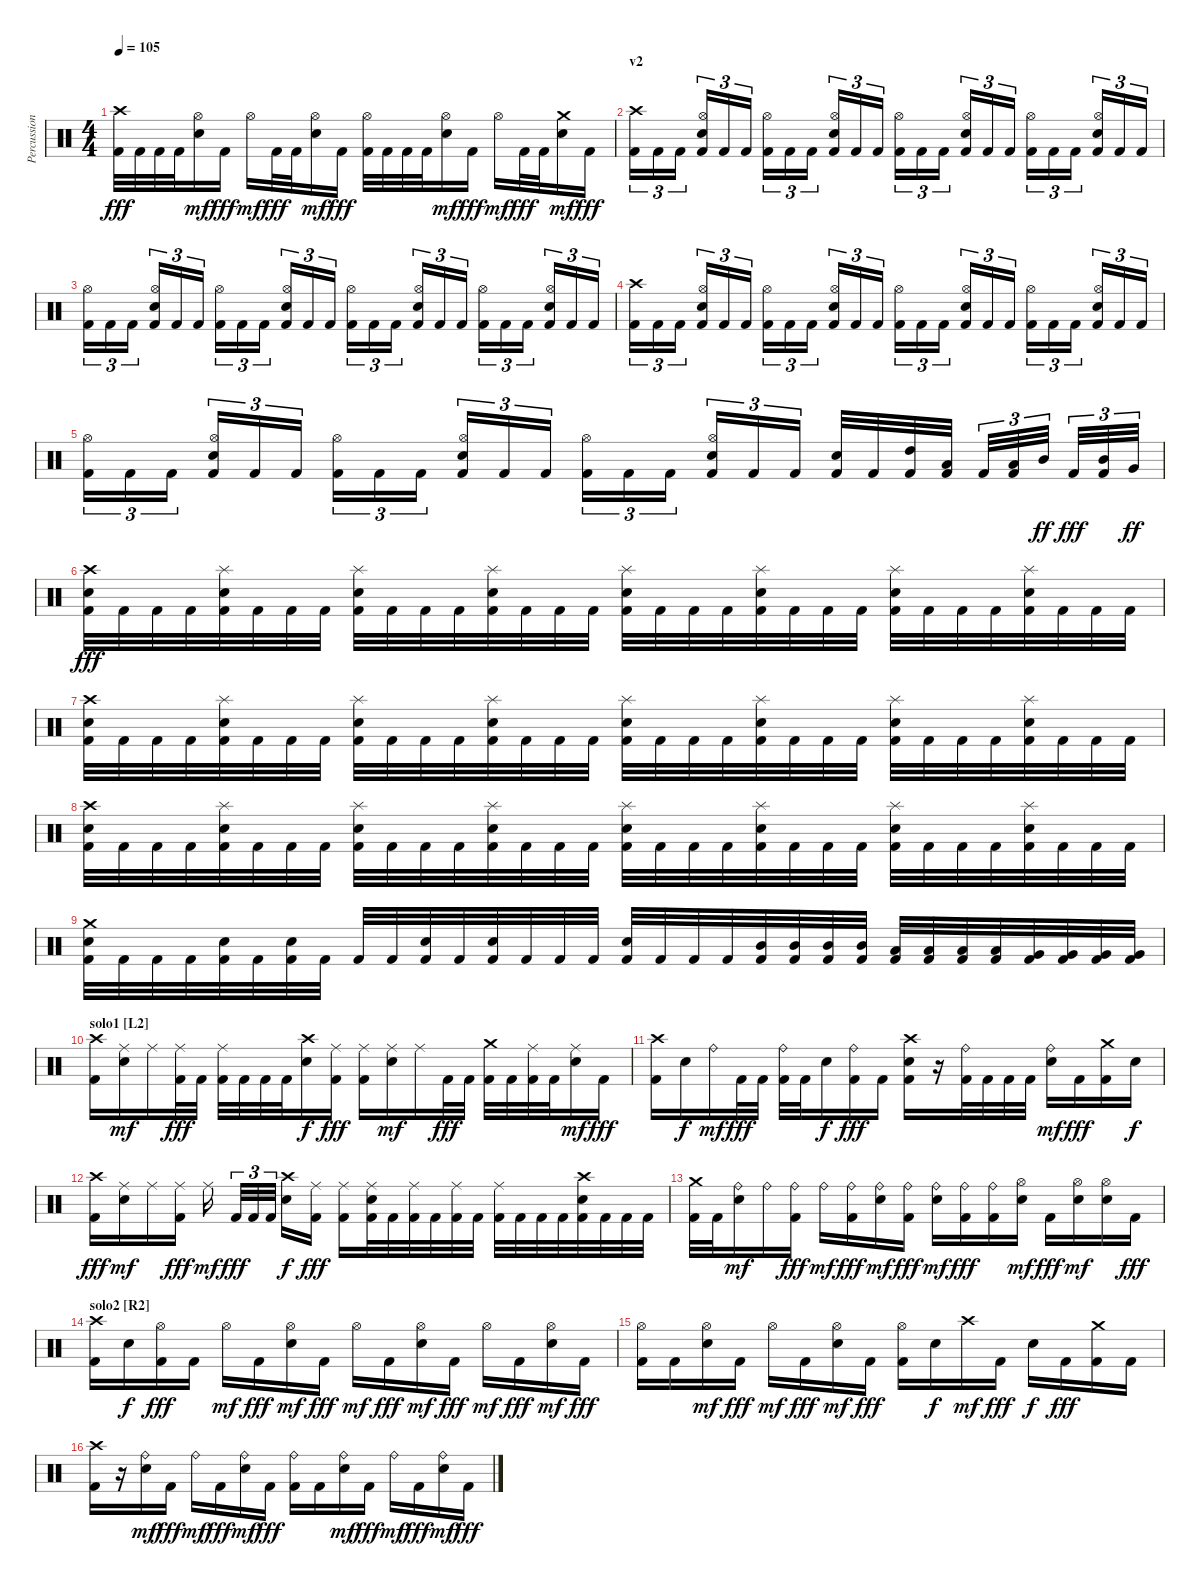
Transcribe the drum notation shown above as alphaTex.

\track ("Percussion" "Percussion") {instrument percussion}
\staff {score}
\articulation defaults
\ts (4 4)
\tempo 105
\clef neutral
\ks c
("Crash high (hit)" "Kick (hit) 2").32{dy fff} "Kick (hit) 2".32 "Kick (hit) 2".32 "Kick (hit) 2".32 ("Hi-Hat (open)" "Snare (hit) 2").16{dy mf} "Kick (hit) 2".16{dy fff} "Hi-Hat (open)".16{dy mf} "Kick (hit) 2".32{dy fff} "Kick (hit) 2".32 ("Hi-Hat (open)" "Snare (hit) 2").16{dy mf} "Kick (hit) 2".16{dy fff} ("Hi-Hat (open)" "Kick (hit) 2").32 "Kick (hit) 2".32 "Kick (hit) 2".32 "Kick (hit) 2".32 ("Hi-Hat (open)" "Snare (hit) 2").16{dy mf} "Kick (hit) 2".16{dy fff} "Hi-Hat (open)".16{dy mf} "Kick (hit) 2".32{dy fff} "Kick (hit) 2".32 ("Crash medium (hit)" "Snare (hit) 2").16{dy mf} "Kick (hit) 2".16{dy fff} |
\section ("" "v2")
("Crash high (hit)" "Kick (hit) 2").16{tu (3 2)} "Kick (hit) 2".16{tu (3 2)} "Kick (hit) 2".16{tu (3 2)} ("Hi-Hat (open)" "Snare (hit) 2" "Kick (hit) 2").16{tu (3 2)} "Kick (hit) 2".16{tu (3 2)} "Kick (hit) 2".16{tu (3 2)} ("Hi-Hat (open)" "Kick (hit) 2").16{tu (3 2)} "Kick (hit) 2".16{tu (3 2)} "Kick (hit) 2".16{tu (3 2)} ("Hi-Hat (open)" "Snare (hit) 2" "Kick (hit) 2").16{tu (3 2)} "Kick (hit) 2".16{tu (3 2)} "Kick (hit) 2".16{tu (3 2)} ("Hi-Hat (open)" "Kick (hit) 2").16{tu (3 2)} "Kick (hit) 2".16{tu (3 2)} "Kick (hit) 2".16{tu (3 2)} ("Hi-Hat (open)" "Snare (hit) 2" "Kick (hit) 2").16{tu (3 2)} "Kick (hit) 2".16{tu (3 2)} "Kick (hit) 2".16{tu (3 2)} ("Hi-Hat (open)" "Kick (hit) 2").16{tu (3 2)} "Kick (hit) 2".16{tu (3 2)} "Kick (hit) 2".16{tu (3 2)} ("Hi-Hat (open)" "Snare (hit) 2" "Kick (hit) 2").16{tu (3 2)} "Kick (hit) 2".16{tu (3 2)} "Kick (hit) 2".16{tu (3 2)} |
("Hi-Hat (open)" "Kick (hit) 2").16{tu (3 2)} "Kick (hit) 2".16{tu (3 2)} "Kick (hit) 2".16{tu (3 2)} ("Hi-Hat (open)" "Snare (hit) 2" "Kick (hit) 2").16{tu (3 2)} "Kick (hit) 2".16{tu (3 2)} "Kick (hit) 2".16{tu (3 2)} ("Hi-Hat (open)" "Kick (hit) 2").16{tu (3 2)} "Kick (hit) 2".16{tu (3 2)} "Kick (hit) 2".16{tu (3 2)} ("Hi-Hat (open)" "Snare (hit) 2" "Kick (hit) 2").16{tu (3 2)} "Kick (hit) 2".16{tu (3 2)} "Kick (hit) 2".16{tu (3 2)} ("Hi-Hat (open)" "Kick (hit) 2").16{tu (3 2)} "Kick (hit) 2".16{tu (3 2)} "Kick (hit) 2".16{tu (3 2)} ("Hi-Hat (open)" "Snare (hit) 2" "Kick (hit) 2").16{tu (3 2)} "Kick (hit) 2".16{tu (3 2)} "Kick (hit) 2".16{tu (3 2)} ("Hi-Hat (open)" "Kick (hit) 2").16{tu (3 2)} "Kick (hit) 2".16{tu (3 2)} "Kick (hit) 2".16{tu (3 2)} ("Hi-Hat (open)" "Snare (hit) 2" "Kick (hit) 2").16{tu (3 2)} "Kick (hit) 2".16{tu (3 2)} "Kick (hit) 2".16{tu (3 2)} |
("Crash high (hit)" "Kick (hit) 2").16{tu (3 2)} "Kick (hit) 2".16{tu (3 2)} "Kick (hit) 2".16{tu (3 2)} ("Hi-Hat (open)" "Snare (hit) 2" "Kick (hit) 2").16{tu (3 2)} "Kick (hit) 2".16{tu (3 2)} "Kick (hit) 2".16{tu (3 2)} ("Hi-Hat (open)" "Kick (hit) 2").16{tu (3 2)} "Kick (hit) 2".16{tu (3 2)} "Kick (hit) 2".16{tu (3 2)} ("Hi-Hat (open)" "Snare (hit) 2" "Kick (hit) 2").16{tu (3 2)} "Kick (hit) 2".16{tu (3 2)} "Kick (hit) 2".16{tu (3 2)} ("Hi-Hat (open)" "Kick (hit) 2").16{tu (3 2)} "Kick (hit) 2".16{tu (3 2)} "Kick (hit) 2".16{tu (3 2)} ("Hi-Hat (open)" "Snare (hit) 2" "Kick (hit) 2").16{tu (3 2)} "Kick (hit) 2".16{tu (3 2)} "Kick (hit) 2".16{tu (3 2)} ("Hi-Hat (open)" "Kick (hit) 2").16{tu (3 2)} "Kick (hit) 2".16{tu (3 2)} "Kick (hit) 2".16{tu (3 2)} ("Hi-Hat (open)" "Snare (hit) 2" "Kick (hit) 2").16{tu (3 2)} "Kick (hit) 2".16{tu (3 2)} "Kick (hit) 2".16{tu (3 2)} |
("Hi-Hat (open)" "Kick (hit) 2").16{tu (3 2)} "Kick (hit) 2".16{tu (3 2)} "Kick (hit) 2".16{tu (3 2)} ("Hi-Hat (open)" "Snare (hit) 2" "Kick (hit) 2").16{tu (3 2)} "Kick (hit) 2".16{tu (3 2)} "Kick (hit) 2".16{tu (3 2)} ("Hi-Hat (open)" "Kick (hit) 2").16{tu (3 2)} "Kick (hit) 2".16{tu (3 2)} "Kick (hit) 2".16{tu (3 2)} ("Hi-Hat (open)" "Snare (hit) 2" "Kick (hit) 2").16{tu (3 2)} "Kick (hit) 2".16{tu (3 2)} "Kick (hit) 2".16{tu (3 2)} ("Hi-Hat (open)" "Kick (hit) 2").16{tu (3 2)} "Kick (hit) 2".16{tu (3 2)} "Kick (hit) 2".16{tu (3 2)} ("Hi-Hat (open)" "Snare (hit) 2" "Kick (hit) 2").16{tu (3 2)} "Kick (hit) 2".16{tu (3 2)} "Kick (hit) 2".16{tu (3 2)} ("Snare (hit) 2" "Kick (hit) 2").32 "Kick (hit) 2".32 ("High Tom (hit)" "Kick (hit) 2").32 ("Low Tom (hit)" "Kick (hit) 2").32 "Kick (hit) 2".32{tu (3 2)} ("Low Tom (hit)" "Kick (hit) 2").32{tu (3 2)} "Mid Tom (hit)".32{tu (3 2) dy ff} "Kick (hit) 2".32{tu (3 2) dy fff} ("Mid Tom (hit)" "Kick (hit) 2").32{tu (3 2)} "Very Low Tom (hit)".32{tu (3 2) dy ff} |
("Crash high (hit)" "Snare (hit) 2" "Kick (hit) 2").32{dy fff} "Kick (hit) 2".32 "Kick (hit) 2".32 "Kick (hit) 2".32 ("Splash (hit)" "Snare (hit) 2" "Kick (hit) 2").32 "Kick (hit) 2".32 "Kick (hit) 2".32 "Kick (hit) 2".32 ("Splash (hit)" "Snare (hit) 2" "Kick (hit) 2").32 "Kick (hit) 2".32 "Kick (hit) 2".32 "Kick (hit) 2".32 ("Splash (hit)" "Snare (hit) 2" "Kick (hit) 2").32 "Kick (hit) 2".32 "Kick (hit) 2".32 "Kick (hit) 2".32 ("Splash (hit)" "Snare (hit) 2" "Kick (hit) 2").32 "Kick (hit) 2".32 "Kick (hit) 2".32 "Kick (hit) 2".32 ("Splash (hit)" "Snare (hit) 2" "Kick (hit) 2").32 "Kick (hit) 2".32 "Kick (hit) 2".32 "Kick (hit) 2".32 ("Splash (hit)" "Snare (hit) 2" "Kick (hit) 2").32 "Kick (hit) 2".32 "Kick (hit) 2".32 "Kick (hit) 2".32 ("Splash (hit)" "Snare (hit) 2" "Kick (hit) 2").32 "Kick (hit) 2".32 "Kick (hit) 2".32 "Kick (hit) 2".32 |
("Crash high (hit)" "Snare (hit) 2" "Kick (hit) 2").32 "Kick (hit) 2".32 "Kick (hit) 2".32 "Kick (hit) 2".32 ("Splash (hit)" "Snare (hit) 2" "Kick (hit) 2").32 "Kick (hit) 2".32 "Kick (hit) 2".32 "Kick (hit) 2".32 ("Splash (hit)" "Snare (hit) 2" "Kick (hit) 2").32 "Kick (hit) 2".32 "Kick (hit) 2".32 "Kick (hit) 2".32 ("Splash (hit)" "Snare (hit) 2" "Kick (hit) 2").32 "Kick (hit) 2".32 "Kick (hit) 2".32 "Kick (hit) 2".32 ("Splash (hit)" "Snare (hit) 2" "Kick (hit) 2").32 "Kick (hit) 2".32 "Kick (hit) 2".32 "Kick (hit) 2".32 ("Splash (hit)" "Snare (hit) 2" "Kick (hit) 2").32 "Kick (hit) 2".32 "Kick (hit) 2".32 "Kick (hit) 2".32 ("Splash (hit)" "Snare (hit) 2" "Kick (hit) 2").32 "Kick (hit) 2".32 "Kick (hit) 2".32 "Kick (hit) 2".32 ("Splash (hit)" "Snare (hit) 2" "Kick (hit) 2").32 "Kick (hit) 2".32 "Kick (hit) 2".32 "Kick (hit) 2".32 |
("Crash high (hit)" "Snare (hit) 2" "Kick (hit) 2").32 "Kick (hit) 2".32 "Kick (hit) 2".32 "Kick (hit) 2".32 ("Splash (hit)" "Snare (hit) 2" "Kick (hit) 2").32 "Kick (hit) 2".32 "Kick (hit) 2".32 "Kick (hit) 2".32 ("Splash (hit)" "Snare (hit) 2" "Kick (hit) 2").32 "Kick (hit) 2".32 "Kick (hit) 2".32 "Kick (hit) 2".32 ("Splash (hit)" "Snare (hit) 2" "Kick (hit) 2").32 "Kick (hit) 2".32 "Kick (hit) 2".32 "Kick (hit) 2".32 ("Splash (hit)" "Snare (hit) 2" "Kick (hit) 2").32 "Kick (hit) 2".32 "Kick (hit) 2".32 "Kick (hit) 2".32 ("Splash (hit)" "Snare (hit) 2" "Kick (hit) 2").32 "Kick (hit) 2".32 "Kick (hit) 2".32 "Kick (hit) 2".32 ("Splash (hit)" "Snare (hit) 2" "Kick (hit) 2").32 "Kick (hit) 2".32 "Kick (hit) 2".32 "Kick (hit) 2".32 ("Splash (hit)" "Snare (hit) 2" "Kick (hit) 2").32 "Kick (hit) 2".32 "Kick (hit) 2".32 "Kick (hit) 2".32 |
("Crash medium (hit)" "Snare (hit) 2" "Kick (hit) 2").32 "Kick (hit) 2".32 "Kick (hit) 2".32 "Kick (hit) 2".32 ("Snare (hit) 2" "Kick (hit) 2").32 "Kick (hit) 2".32 ("Snare (hit) 2" "Kick (hit) 2").32 "Kick (hit) 2".32 "Kick (hit) 2".32 "Kick (hit) 2".32 ("Snare (hit) 2" "Kick (hit) 2").32 "Kick (hit) 2".32 ("Snare (hit) 2" "Kick (hit) 2").32 "Kick (hit) 2".32 "Kick (hit) 2".32 "Kick (hit) 2".32 ("Snare (hit) 2" "Kick (hit) 2").32 "Kick (hit) 2".32 "Kick (hit) 2".32 "Kick (hit) 2".32 ("Mid Tom (hit)" "Kick (hit) 2").32 ("Mid Tom (hit)" "Kick (hit) 2").32 ("Mid Tom (hit)" "Kick (hit) 2").32 ("Mid Tom (hit)" "Kick (hit) 2").32 ("Low Tom (hit)" "Kick (hit) 2").32 ("Low Tom (hit)" "Kick (hit) 2").32 ("Low Tom (hit)" "Kick (hit) 2").32 ("Low Tom (hit)" "Kick (hit) 2").32 ("Very Low Tom (hit)" "Kick (hit) 2").32 ("Very Low Tom (hit)" "Kick (hit) 2").32 ("Very Low Tom (hit)" "Kick (hit) 2").32 ("Very Low Tom (hit)" "Kick (hit) 2").32 |
\section ("" "solo1 [L2]")
("Crash high (hit)" "Kick (hit) 2").16 ("Ride (middle)" "Snare (hit) 2").16{dy mf} "Ride (middle)".16 ("Ride (middle)" "Kick (hit) 2").32{dy fff} "Kick (hit) 2".32 ("Ride (middle)" "Kick (hit) 2").32 "Kick (hit) 2".32 "Kick (hit) 2".32 "Kick (hit) 2".32 ("Crash high (hit)" "Snare (hit) 2").16{dy f} ("Ride (middle)" "Kick (hit) 2").16{dy fff} ("Ride (middle)" "Kick (hit) 2").16 ("Ride (middle)" "Snare (hit) 2").16{dy mf} "Ride (middle)".16 "Kick (hit) 2".32{dy fff} "Kick (hit) 2".32 ("Crash medium (hit)" "Kick (hit) 2").32 "Kick (hit) 2".32 ("Ride (middle)" "Kick (hit) 2").32 "Kick (hit) 2".32 ("Ride (middle)" "Snare (hit) 2").16{dy mf} "Kick (hit) 2".16{dy fff} |
("Crash high (hit)" "Kick (hit) 2").16 "Snare (hit) 2".16{dy f} "Ride (bell)".16{dy mf} "Kick (hit) 2".32{dy fff} "Kick (hit) 2".32 ("Ride (bell)" "Kick (hit) 2").32 "Kick (hit) 2".32 "Snare (hit) 2".16{dy f} ("Ride (bell)" "Kick (hit) 2").16{dy fff} "Kick (hit) 2".16 ("Crash high (hit)" "Snare (hit) 2" "Kick (hit) 2").16 r.16 ("Ride (bell)" "Kick (hit) 2").32 "Kick (hit) 2".32 "Kick (hit) 2".32 "Kick (hit) 2".32 ("Ride (bell)" "Snare (hit) 2").16{dy mf} "Kick (hit) 2".16{dy fff} ("Crash medium (hit)" "Kick (hit) 2").16 "Snare (hit) 2".16{dy f} |
("Crash high (hit)" "Kick (hit) 2").16{dy fff} ("Ride (middle)" "Snare (hit) 2").16{dy mf} "Ride (middle)".16 ("Ride (middle)" "Kick (hit) 2").16{dy fff} "Ride (middle)".16{dy mf} "Kick (hit) 2".32{tu (3 2) dy fff} "Kick (hit) 2".32{tu (3 2)} "Kick (hit) 2".32{tu (3 2)} ("Crash high (hit)" "Snare (hit) 2").16{dy f} ("Ride (middle)" "Kick (hit) 2").16{dy fff} ("Ride (middle)" "Kick (hit) 2").16 ("Ride (middle)" "Snare (hit) 2" "Kick (hit) 2").32 "Kick (hit) 2".32 ("Ride (middle)" "Kick (hit) 2").32 "Kick (hit) 2".32 ("Ride (middle)" "Kick (hit) 2").32 "Kick (hit) 2".32 ("Ride (middle)" "Kick (hit) 2").32 "Kick (hit) 2".32 "Kick (hit) 2".32 "Kick (hit) 2".32 ("Crash high (hit)" "Snare (hit) 2" "Kick (hit) 2").32 "Kick (hit) 2".32 "Kick (hit) 2".32 "Kick (hit) 2".32 |
("Crash medium (hit)" "Kick (hit) 2").32 "Kick (hit) 2".32 ("Ride (bell)" "Snare (hit) 2").16{dy mf} "Ride (bell)".16 ("Ride (bell)" "Kick (hit) 2").16{dy fff} "Ride (bell)".16{dy mf} ("Ride (bell)" "Kick (hit) 2").16{dy fff} ("Ride (bell)" "Snare (hit) 2").16{dy mf} ("Ride (bell)" "Kick (hit) 2").16{dy fff} ("Ride (bell)" "Snare (hit) 2").16{dy mf} ("Ride (bell)" "Kick (hit) 2").16{dy fff} ("Ride (bell)" "Kick (hit) 2").16 ("Hi-Hat (open)" "Snare (hit) 2").16{dy mf} "Kick (hit) 2".16{dy fff} ("Hi-Hat (open)" "Snare (hit) 2").16{dy mf} ("Hi-Hat (open)" "Snare (hit) 2").16 "Kick (hit) 2".16{dy fff} |
\section ("" "solo2 [R2]")
("Crash high (hit)" "Kick (hit) 2").16 "Snare (hit) 2".16{dy f} ("Hi-Hat (open)" "Kick (hit) 2").16{dy fff} "Kick (hit) 2".16 "Hi-Hat (open)".16{dy mf} "Kick (hit) 2".16{dy fff} ("Hi-Hat (open)" "Snare (hit) 2").16{dy mf} "Kick (hit) 2".16{dy fff} "Hi-Hat (open)".16{dy mf} "Kick (hit) 2".16{dy fff} ("Hi-Hat (open)" "Snare (hit) 2").16{dy mf} "Kick (hit) 2".16{dy fff} "Hi-Hat (open)".16{dy mf} "Kick (hit) 2".16{dy fff} ("Hi-Hat (open)" "Snare (hit) 2").16{dy mf} "Kick (hit) 2".16{dy fff} |
("Hi-Hat (open)" "Kick (hit) 2").16 "Kick (hit) 2".16 ("Hi-Hat (open)" "Snare (hit) 2").16{dy mf} "Kick (hit) 2".16{dy fff} "Hi-Hat (open)".16{dy mf} "Kick (hit) 2".16{dy fff} ("Hi-Hat (open)" "Snare (hit) 2").16{dy mf} "Kick (hit) 2".16{dy fff} ("Hi-Hat (open)" "Kick (hit) 2").16 "Snare (hit) 2".16{dy f} "Crash high (hit)".16{dy mf} "Kick (hit) 2".16{dy fff} "Snare (hit) 2".16{dy f} "Kick (hit) 2".16{dy fff} ("Crash medium (hit)" "Kick (hit) 2").16 "Kick (hit) 2".16 |
("Crash high (hit)" "Kick (hit) 2").16 r.16 ("Ride (bell)" "Snare (hit) 2").16{dy mf} "Kick (hit) 2".16{dy fff} "Ride (bell)".16{dy mf} "Kick (hit) 2".16{dy fff} ("Ride (bell)" "Snare (hit) 2").16{dy mf} "Kick (hit) 2".16{dy fff} ("Ride (bell)" "Kick (hit) 2").16 "Kick (hit) 2".16 ("Ride (bell)" "Snare (hit) 2").16{dy mf} "Kick (hit) 2".16{dy fff} "Ride (bell)".16{dy mf} "Kick (hit) 2".16{dy fff} ("Ride (bell)" "Snare (hit) 2").16{dy mf} "Kick (hit) 2".16{dy fff}
